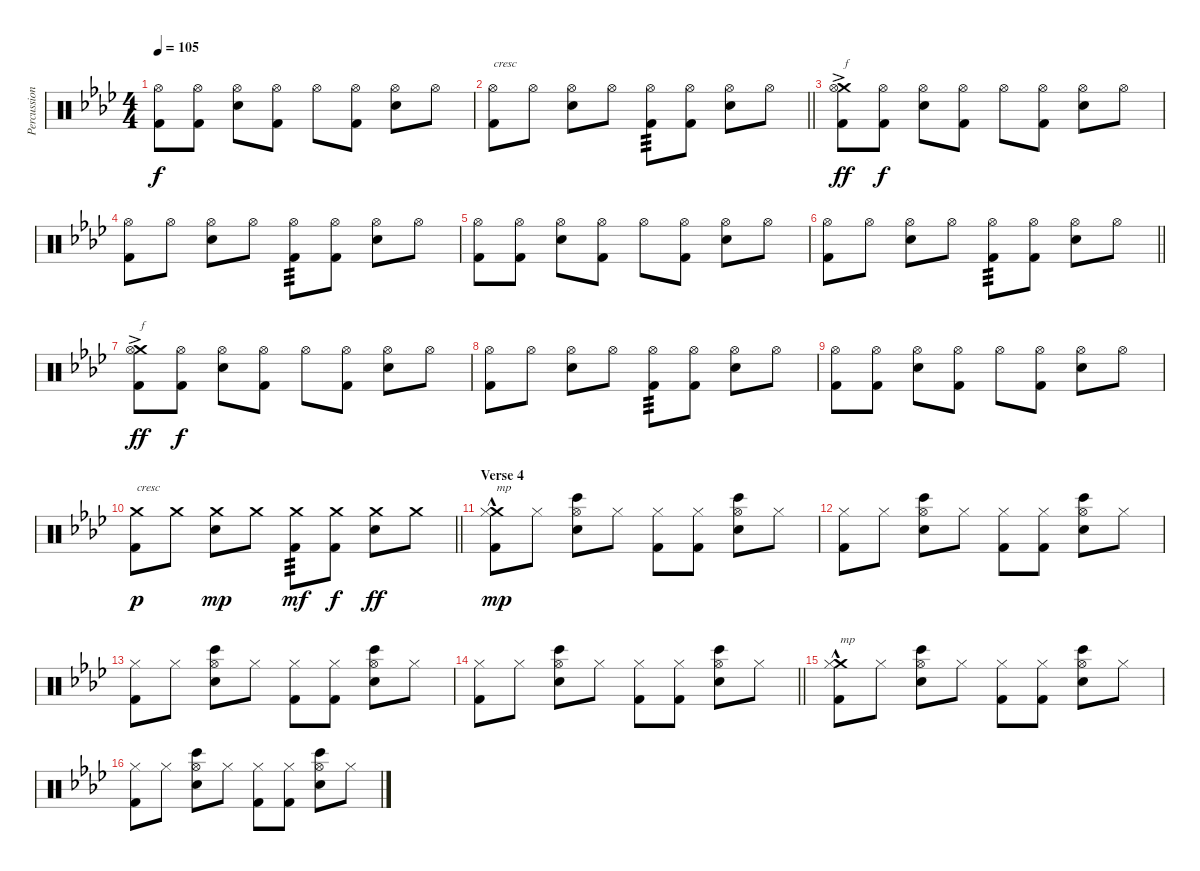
\track ("Percussion" "Percussion") {instrument percussion}
\staff {score}
\articulation defaults
\ts (4 4)
\tempo 105
\clef neutral
\ks fminor
("Hi-Hat (open)" "Kick (hit) 2").8{dy f} ("Hi-Hat (open)" "Kick (hit) 2").8 ("Hi-Hat (open)" "Electric Snare (hit)").8 ("Hi-Hat (open)" "Kick (hit) 2").8 "Hi-Hat (open)".8 ("Hi-Hat (open)" "Kick (hit) 2").8 ("Hi-Hat (open)" "Electric Snare (hit)").8 "Hi-Hat (open)".8 |
\barLineRight lightlight
("Hi-Hat (open)" "Kick (hit) 2").8{txt "cresc"} "Hi-Hat (open)".8 ("Hi-Hat (open)" "Electric Snare (hit)").8 "Hi-Hat (open)".8 ("Hi-Hat (open)" "Kick (hit) 2").8{tp 3} ("Hi-Hat (open)" "Kick (hit) 2").8 ("Hi-Hat (open)" "Electric Snare (hit)").8 "Hi-Hat (open)".8 |
\section ("" "")
("Crash medium (hit)"{ac} "Hi-Hat (open)"{ac} "Kick (hit) 2"{ac}).8{txt "f" dy ff} ("Hi-Hat (open)" "Kick (hit) 2").8{dy f} ("Hi-Hat (open)" "Electric Snare (hit)").8 ("Hi-Hat (open)" "Kick (hit) 2").8 "Hi-Hat (open)".8 ("Hi-Hat (open)" "Kick (hit) 2").8 ("Hi-Hat (open)" "Electric Snare (hit)").8 "Hi-Hat (open)".8 |
("Hi-Hat (open)" "Kick (hit) 2").8 "Hi-Hat (open)".8 ("Hi-Hat (open)" "Electric Snare (hit)").8 "Hi-Hat (open)".8 ("Hi-Hat (open)" "Kick (hit) 2").8{tp 3} ("Hi-Hat (open)" "Kick (hit) 2").8 ("Hi-Hat (open)" "Electric Snare (hit)").8 "Hi-Hat (open)".8 |
("Hi-Hat (open)" "Kick (hit) 2").8 ("Hi-Hat (open)" "Kick (hit) 2").8 ("Hi-Hat (open)" "Electric Snare (hit)").8 ("Hi-Hat (open)" "Kick (hit) 2").8 "Hi-Hat (open)".8 ("Hi-Hat (open)" "Kick (hit) 2").8 ("Hi-Hat (open)" "Electric Snare (hit)").8 "Hi-Hat (open)".8 |
\barLineRight lightlight
("Hi-Hat (open)" "Kick (hit) 2").8 "Hi-Hat (open)".8 ("Hi-Hat (open)" "Electric Snare (hit)").8 "Hi-Hat (open)".8 ("Hi-Hat (open)" "Kick (hit) 2").8{tp 3} ("Hi-Hat (open)" "Kick (hit) 2").8 ("Hi-Hat (open)" "Electric Snare (hit)").8 "Hi-Hat (open)".8 |
\section ("" "")
("Crash medium (hit)"{ac} "Hi-Hat (open)"{ac} "Kick (hit) 2"{ac}).8{txt "f" dy ff} ("Hi-Hat (open)" "Kick (hit) 2").8{dy f} ("Hi-Hat (open)" "Electric Snare (hit)").8 ("Hi-Hat (open)" "Kick (hit) 2").8 "Hi-Hat (open)".8 ("Hi-Hat (open)" "Kick (hit) 2").8 ("Hi-Hat (open)" "Electric Snare (hit)").8 "Hi-Hat (open)".8 |
("Hi-Hat (open)" "Kick (hit) 2").8 "Hi-Hat (open)".8 ("Hi-Hat (open)" "Electric Snare (hit)").8 "Hi-Hat (open)".8 ("Hi-Hat (open)" "Kick (hit) 2").8{tp 3} ("Hi-Hat (open)" "Kick (hit) 2").8 ("Hi-Hat (open)" "Electric Snare (hit)").8 "Hi-Hat (open)".8 |
("Hi-Hat (open)" "Kick (hit) 2").8 ("Hi-Hat (open)" "Kick (hit) 2").8 ("Hi-Hat (open)" "Electric Snare (hit)").8 ("Hi-Hat (open)" "Kick (hit) 2").8 "Hi-Hat (open)".8 ("Hi-Hat (open)" "Kick (hit) 2").8 ("Hi-Hat (open)" "Electric Snare (hit)").8 "Hi-Hat (open)".8 |
\barLineRight lightlight
("Crash medium (hit)" "Kick (hit) 2").8{txt "cresc" dy p} "Crash medium (hit)".8 ("Crash medium (hit)" "Electric Snare (hit)").8{dy mp} "Crash medium (hit)".8 ("Crash medium (hit)" "Kick (hit) 2").8{tp 3 dy mf} ("Crash medium (hit)" "Kick (hit) 2").8{dy f} ("Crash medium (hit)" "Electric Snare (hit)").8{dy ff} "Crash medium (hit)".8 |
\section ("" "Verse 4")
("Crash medium (hit)"{hac} "Hi-Hat (closed)" "Kick (hit) 2").8{txt "mp" dy mp} "Hi-Hat (closed)".8 ("Hi-Hat (open)" "Snare (hit) 2" "Bongo High (hit)").8 "Hi-Hat (closed)".8 ("Hi-Hat (closed)" "Kick (hit) 2").8 ("Hi-Hat (closed)" "Kick (hit) 2").8 ("Hi-Hat (open)" "Snare (hit) 2" "Bongo High (hit)").8 "Hi-Hat (closed)".8 |
("Hi-Hat (closed)" "Kick (hit) 2").8 "Hi-Hat (closed)".8 ("Hi-Hat (open)" "Snare (hit) 2" "Bongo High (hit)").8 "Hi-Hat (closed)".8 ("Hi-Hat (closed)" "Kick (hit) 2").8 ("Hi-Hat (closed)" "Kick (hit) 2").8 ("Hi-Hat (open)" "Snare (hit) 2" "Bongo High (hit)").8 "Hi-Hat (closed)".8 |
("Hi-Hat (closed)" "Kick (hit) 2").8 "Hi-Hat (closed)".8 ("Hi-Hat (open)" "Snare (hit) 2" "Bongo High (hit)").8 "Hi-Hat (closed)".8 ("Hi-Hat (closed)" "Kick (hit) 2").8 ("Hi-Hat (closed)" "Kick (hit) 2").8 ("Hi-Hat (open)" "Snare (hit) 2" "Bongo High (hit)").8 "Hi-Hat (closed)".8 |
\barLineRight lightlight
("Hi-Hat (closed)" "Kick (hit) 2").8 "Hi-Hat (closed)".8 ("Hi-Hat (open)" "Snare (hit) 2" "Bongo High (hit)").8 "Hi-Hat (closed)".8 ("Hi-Hat (closed)" "Kick (hit) 2").8 ("Hi-Hat (closed)" "Kick (hit) 2").8 ("Hi-Hat (open)" "Snare (hit) 2" "Bongo High (hit)").8 "Hi-Hat (closed)".8 |
\section ("" "")
("Crash medium (hit)"{hac} "Hi-Hat (closed)" "Kick (hit) 2").8{txt "mp"} "Hi-Hat (closed)".8 ("Hi-Hat (open)" "Snare (hit) 2" "Bongo High (hit)").8 "Hi-Hat (closed)".8 ("Hi-Hat (closed)" "Kick (hit) 2").8 ("Hi-Hat (closed)" "Kick (hit) 2").8 ("Hi-Hat (open)" "Snare (hit) 2" "Bongo High (hit)").8 "Hi-Hat (closed)".8 |
("Hi-Hat (closed)" "Kick (hit) 2").8 "Hi-Hat (closed)".8 ("Hi-Hat (open)" "Snare (hit) 2" "Bongo High (hit)").8 "Hi-Hat (closed)".8 ("Hi-Hat (closed)" "Kick (hit) 2").8 ("Hi-Hat (closed)" "Kick (hit) 2").8 ("Hi-Hat (open)" "Snare (hit) 2" "Bongo High (hit)").8 "Hi-Hat (closed)".8
